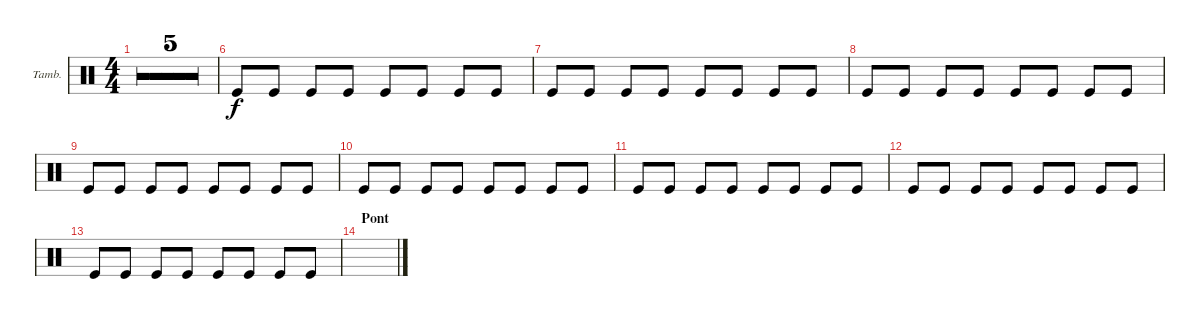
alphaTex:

\defaultSystemsLayout 4
\bracketExtendMode groupsimilarinstruments
\firstSystemTrackNameOrientation horizontal
\otherSystemsTrackNameOrientation horizontal
\track ("Tambourine" "Tamb.") {multiBarRest instrument percussion}
\staff {score}
\articulation defaults
\ts (4 4)
\tempo 120
\clef neutral
\ks c
|
|
|
|
|
"Kick (hit)".8 "Kick (hit)".8 "Kick (hit)".8 "Kick (hit)".8 "Kick (hit)".8 "Kick (hit)".8 "Kick (hit)".8 "Kick (hit)".8 |
"Kick (hit)".8 "Kick (hit)".8 "Kick (hit)".8 "Kick (hit)".8 "Kick (hit)".8 "Kick (hit)".8 "Kick (hit)".8 "Kick (hit)".8 |
"Kick (hit)".8 "Kick (hit)".8 "Kick (hit)".8 "Kick (hit)".8 "Kick (hit)".8 "Kick (hit)".8 "Kick (hit)".8 "Kick (hit)".8 |
"Kick (hit)".8 "Kick (hit)".8 "Kick (hit)".8 "Kick (hit)".8 "Kick (hit)".8 "Kick (hit)".8 "Kick (hit)".8 "Kick (hit)".8 |
"Kick (hit)".8 "Kick (hit)".8 "Kick (hit)".8 "Kick (hit)".8 "Kick (hit)".8 "Kick (hit)".8 "Kick (hit)".8 "Kick (hit)".8 |
"Kick (hit)".8 "Kick (hit)".8 "Kick (hit)".8 "Kick (hit)".8 "Kick (hit)".8 "Kick (hit)".8 "Kick (hit)".8 "Kick (hit)".8 |
"Kick (hit)".8 "Kick (hit)".8 "Kick (hit)".8 "Kick (hit)".8 "Kick (hit)".8 "Kick (hit)".8 "Kick (hit)".8 "Kick (hit)".8 |
"Kick (hit)".8 "Kick (hit)".8 "Kick (hit)".8 "Kick (hit)".8 "Kick (hit)".8 "Kick (hit)".8 "Kick (hit)".8 "Kick (hit)".8 |
\section ("" "Pont")
